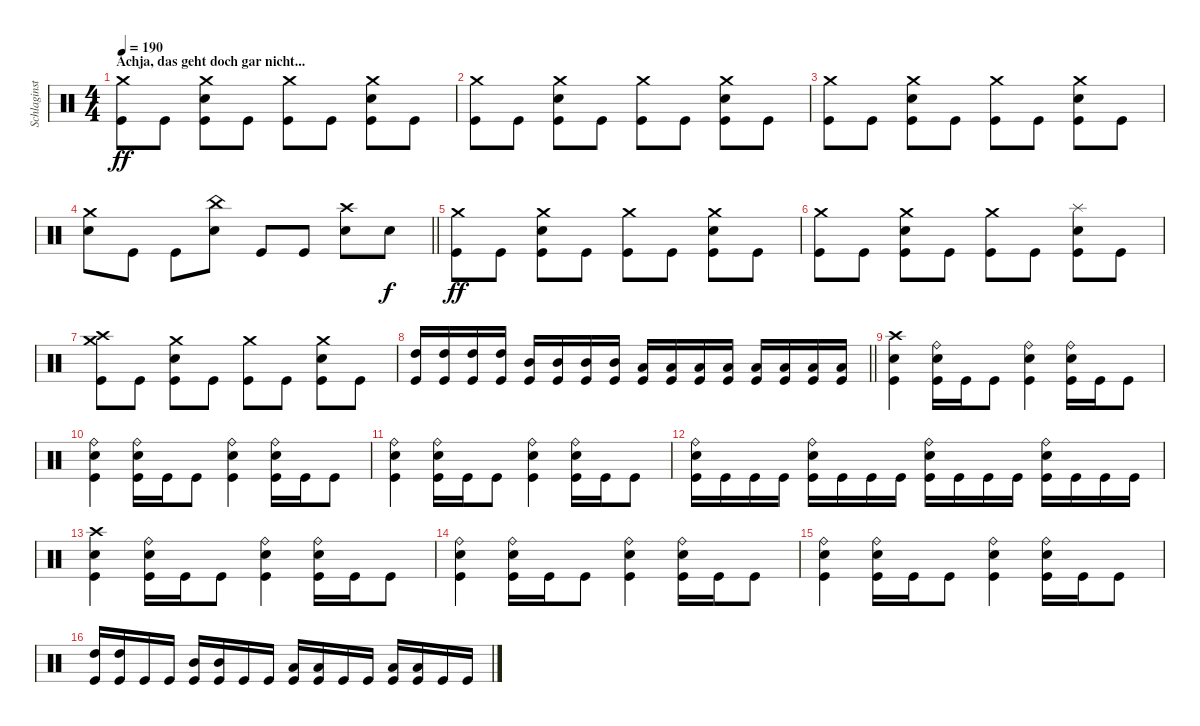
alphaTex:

\track ("Schlaginstrumente - Auswahl" "Schlaginst") {instrument percussion}
\staff {score}
\articulation defaults
\ts (4 4)
\section ("" "Achja, das geht doch gar nicht...")
\tempo 190
\clef neutral
\ks c
("Crash medium (hit)" "Kick (hit)").8{dy ff} "Kick (hit)".8 ("Crash medium (hit)" "Electric Snare (hit)" "Kick (hit)").8 "Kick (hit)".8 ("Crash medium (hit)" "Kick (hit)").8 "Kick (hit)".8 ("Crash medium (hit)" "Electric Snare (hit)" "Kick (hit)").8 "Kick (hit)".8 |
("Crash medium (hit)" "Kick (hit)").8 "Kick (hit)".8 ("Crash medium (hit)" "Electric Snare (hit)" "Kick (hit)").8 "Kick (hit)".8 ("Crash medium (hit)" "Kick (hit)").8 "Kick (hit)".8 ("Crash medium (hit)" "Electric Snare (hit)" "Kick (hit)").8 "Kick (hit)".8 |
("Crash medium (hit)" "Kick (hit)").8 "Kick (hit)".8 ("Crash medium (hit)" "Electric Snare (hit)" "Kick (hit)").8 "Kick (hit)".8 ("Crash medium (hit)" "Kick (hit)").8 "Kick (hit)".8 ("Crash medium (hit)" "Electric Snare (hit)" "Kick (hit)").8 "Kick (hit)".8 |
\barLineRight lightlight
("Crash medium (hit)" "Electric Snare (hit)").8 "Kick (hit)".8 "Kick (hit)".8 ("China (hit)" "Electric Snare (hit)").8 "Kick (hit)".8 "Kick (hit)".8 ("Crash high (hit)" "Electric Snare (hit)").8 "Electric Snare (hit)".8{dy f} |
("Crash medium (hit)" "Kick (hit)").8{dy ff} "Kick (hit)".8 ("Crash medium (hit)" "Electric Snare (hit)" "Kick (hit)").8 "Kick (hit)".8 ("Crash medium (hit)" "Kick (hit)").8 "Kick (hit)".8 ("Crash medium (hit)" "Electric Snare (hit)" "Kick (hit)").8 "Kick (hit)".8 |
("Crash medium (hit)" "Kick (hit)").8 "Kick (hit)".8 ("Crash medium (hit)" "Electric Snare (hit)" "Kick (hit)").8 "Kick (hit)".8 ("Crash medium (hit)" "Kick (hit)").8 "Kick (hit)".8 ("Splash (hit)" "Electric Snare (hit)" "Kick (hit)").8 "Kick (hit)".8 |
("Crash medium (hit)" "Crash high (hit)" "Kick (hit)").8 "Kick (hit)".8 ("Crash medium (hit)" "Electric Snare (hit)" "Kick (hit)").8 "Kick (hit)".8 ("Crash medium (hit)" "Kick (hit)").8 "Kick (hit)".8 ("Crash medium (hit)" "Electric Snare (hit)" "Kick (hit)").8 "Kick (hit)".8 |
\barLineRight lightlight
("High Tom (hit)" "Kick (hit)").16 ("High Tom (hit)" "Kick (hit)").16 ("High Tom (hit)" "Kick (hit)").16 ("High Tom (hit)" "Kick (hit)").16 ("Mid Tom (hit)" "Kick (hit)").16 ("Mid Tom (hit)" "Kick (hit)").16 ("Mid Tom (hit)" "Kick (hit)").16 ("Mid Tom (hit)" "Kick (hit)").16 ("Low Tom (hit)" "Kick (hit)").16 ("Low Tom (hit)" "Kick (hit)").16 ("Low Tom (hit)" "Kick (hit)").16 ("Low Tom (hit)" "Kick (hit)").16 ("Low Floor Tom (hit)" "Kick (hit)").16 ("Low Floor Tom (hit)" "Kick (hit)").16 ("Low Floor Tom (hit)" "Kick (hit)").16 ("Low Floor Tom (hit)" "Kick (hit)").16 |
("Crash high (hit)" "Electric Snare (hit)" "Kick (hit)").4 ("Ride (bell)" "Electric Snare (hit)" "Kick (hit)").16 "Kick (hit)".16 "Kick (hit)".8 ("Ride (bell)" "Electric Snare (hit)" "Kick (hit)").4 ("Ride (bell)" "Electric Snare (hit)" "Kick (hit)").16 "Kick (hit)".16 "Kick (hit)".8 |
("Ride (bell)" "Electric Snare (hit)" "Kick (hit)").4 ("Ride (bell)" "Electric Snare (hit)" "Kick (hit)").16 "Kick (hit)".16 "Kick (hit)".8 ("Ride (bell)" "Electric Snare (hit)" "Kick (hit)").4 ("Ride (bell)" "Electric Snare (hit)" "Kick (hit)").16 "Kick (hit)".16 "Kick (hit)".8 |
("Ride (bell)" "Electric Snare (hit)" "Kick (hit)").4 ("Ride (bell)" "Electric Snare (hit)" "Kick (hit)").16 "Kick (hit)".16 "Kick (hit)".8 ("Ride (bell)" "Electric Snare (hit)" "Kick (hit)").4 ("Ride (bell)" "Electric Snare (hit)" "Kick (hit)").16 "Kick (hit)".16 "Kick (hit)".8 |
("Ride (bell)" "Electric Snare (hit)" "Kick (hit)").16 "Kick (hit)".16 "Kick (hit)".16 "Kick (hit)".16 ("Ride (bell)" "Electric Snare (hit)" "Kick (hit)").16 "Kick (hit)".16 "Kick (hit)".16 "Kick (hit)".16 ("Ride (bell)" "Electric Snare (hit)" "Kick (hit)").16 "Kick (hit)".16 "Kick (hit)".16 "Kick (hit)".16 ("Ride (bell)" "Electric Snare (hit)" "Kick (hit)").16 "Kick (hit)".16 "Kick (hit)".16 "Kick (hit)".16 |
("Crash high (hit)" "Electric Snare (hit)" "Kick (hit)").4 ("Ride (bell)" "Electric Snare (hit)" "Kick (hit)").16 "Kick (hit)".16 "Kick (hit)".8 ("Ride (bell)" "Electric Snare (hit)" "Kick (hit)").4 ("Ride (bell)" "Electric Snare (hit)" "Kick (hit)").16 "Kick (hit)".16 "Kick (hit)".8 |
("Ride (bell)" "Electric Snare (hit)" "Kick (hit)").4 ("Ride (bell)" "Electric Snare (hit)" "Kick (hit)").16 "Kick (hit)".16 "Kick (hit)".8 ("Ride (bell)" "Electric Snare (hit)" "Kick (hit)").4 ("Ride (bell)" "Electric Snare (hit)" "Kick (hit)").16 "Kick (hit)".16 "Kick (hit)".8 |
("Ride (bell)" "Electric Snare (hit)" "Kick (hit)").4 ("Ride (bell)" "Electric Snare (hit)" "Kick (hit)").16 "Kick (hit)".16 "Kick (hit)".8 ("Ride (bell)" "Electric Snare (hit)" "Kick (hit)").4 ("Ride (bell)" "Electric Snare (hit)" "Kick (hit)").16 "Kick (hit)".16 "Kick (hit)".8 |
("High Tom (hit)" "Kick (hit)").16 ("High Tom (hit)" "Kick (hit)").16 "Kick (hit)".16 "Kick (hit)".16 ("Mid Tom (hit)" "Kick (hit)").16 ("Mid Tom (hit)" "Kick (hit)").16 "Kick (hit)".16 "Kick (hit)".16 ("Low Tom (hit)" "Kick (hit)").16 ("Low Tom (hit)" "Kick (hit)").16 "Kick (hit)".16 "Kick (hit)".16 ("Low Floor Tom (hit)" "Kick (hit)").16 ("Low Floor Tom (hit)" "Kick (hit)").16 "Kick (hit)".16 "Kick (hit)".16
